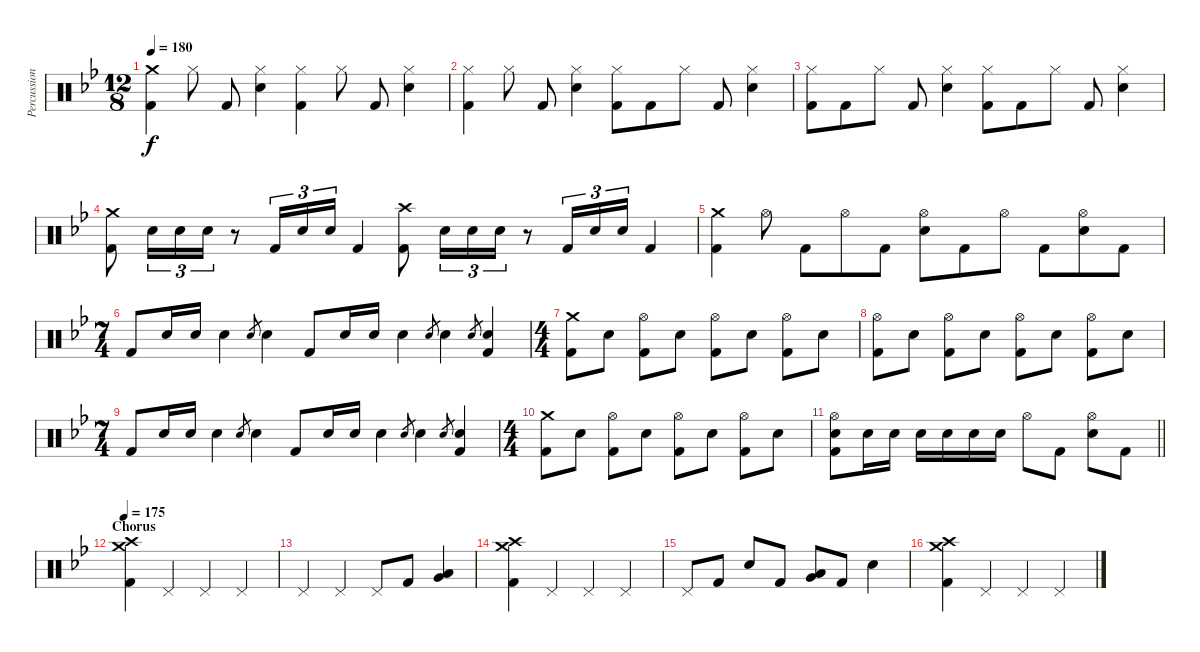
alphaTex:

\track ("Percussion" "Percussion") {instrument percussion}
\staff {score}
\articulation defaults
\ts (12 8)
\tempo 180
\clef neutral
\ks bb
("Crash medium (hit)" "Kick (hit) 2").4{dy f} "Hi-Hat (closed)".8 "Kick (hit) 2".8 ("Hi-Hat (closed)" "Electric Snare (hit)").4 ("Hi-Hat (closed)" "Kick (hit) 2").4 "Hi-Hat (closed)".8 "Kick (hit) 2".8 ("Hi-Hat (closed)" "Electric Snare (hit)").4 |
("Hi-Hat (closed)" "Kick (hit) 2").4 "Hi-Hat (closed)".8 "Kick (hit) 2".8 ("Hi-Hat (closed)" "Electric Snare (hit)").4 ("Hi-Hat (closed)" "Kick (hit) 2").8 "Kick (hit) 2".8 "Hi-Hat (closed)".8 "Kick (hit) 2".8 ("Hi-Hat (closed)" "Electric Snare (hit)").4 |
("Hi-Hat (closed)" "Kick (hit) 2").8 "Kick (hit) 2".8 "Hi-Hat (closed)".8 "Kick (hit) 2".8 ("Hi-Hat (closed)" "Electric Snare (hit)").4 ("Hi-Hat (closed)" "Kick (hit) 2").8 "Kick (hit) 2".8 "Hi-Hat (closed)".8 "Kick (hit) 2".8 ("Hi-Hat (closed)" "Electric Snare (hit)").4 |
("Crash medium (hit)" "Kick (hit) 2").8 "Electric Snare (hit)".16{tu (3 2)} "Electric Snare (hit)".16{tu (3 2)} "Electric Snare (hit)".16{tu (3 2)} r.8 "Kick (hit) 2".16{tu (3 2)} "Electric Snare (hit)".16{tu (3 2)} "Electric Snare (hit)".16{tu (3 2)} "Kick (hit) 2".4 ("Crash high (hit)" "Kick (hit) 2").8 "Electric Snare (hit)".16{tu (3 2)} "Electric Snare (hit)".16{tu (3 2)} "Electric Snare (hit)".16{tu (3 2)} r.8 "Kick (hit) 2".16{tu (3 2)} "Electric Snare (hit)".16{tu (3 2)} "Electric Snare (hit)".16{tu (3 2)} "Kick (hit) 2".4 |
("Crash medium (hit)" "Kick (hit) 2").4 "Hi-Hat (open)".8 "Kick (hit) 2".8 "Hi-Hat (open)".8 "Kick (hit) 2".8 ("Hi-Hat (open)" "Electric Snare (hit)").8 "Kick (hit) 2".8 "Hi-Hat (open)".8 "Kick (hit) 2".8 ("Hi-Hat (open)" "Electric Snare (hit)").8 "Kick (hit) 2".8 |
\ts (7 4)
"Kick (hit) 2".8 "Electric Snare (hit)".16 "Electric Snare (hit)".16 "Electric Snare (hit)".4 "Electric Snare (hit)".8{gr} "Electric Snare (hit)".4 "Kick (hit) 2".8 "Electric Snare (hit)".16 "Electric Snare (hit)".16 "Electric Snare (hit)".4 "Electric Snare (hit)".8{gr} "Electric Snare (hit)".4 "Electric Snare (hit)".8{gr} ("Electric Snare (hit)" "Kick (hit) 2").4 |
\ts (4 4)
("Crash medium (hit)" "Kick (hit) 2").8 "Electric Snare (hit)".8 ("Hi-Hat (open)" "Kick (hit) 2").8 "Electric Snare (hit)".8 ("Hi-Hat (open)" "Kick (hit) 2").8 "Electric Snare (hit)".8 ("Hi-Hat (open)" "Kick (hit) 2").8 "Electric Snare (hit)".8 |
("Hi-Hat (open)" "Kick (hit) 2").8 "Electric Snare (hit)".8 ("Hi-Hat (open)" "Kick (hit) 2").8 "Electric Snare (hit)".8 ("Hi-Hat (open)" "Kick (hit) 2").8 "Electric Snare (hit)".8 ("Hi-Hat (open)" "Kick (hit) 2").8 "Electric Snare (hit)".8 |
\ts (7 4)
"Kick (hit) 2".8 "Electric Snare (hit)".16 "Electric Snare (hit)".16 "Electric Snare (hit)".4 "Electric Snare (hit)".8{gr} "Electric Snare (hit)".4 "Kick (hit) 2".8 "Electric Snare (hit)".16 "Electric Snare (hit)".16 "Electric Snare (hit)".4 "Electric Snare (hit)".8{gr} "Electric Snare (hit)".4 "Electric Snare (hit)".8{gr} ("Electric Snare (hit)" "Kick (hit) 2").4 |
\ts (4 4)
("Crash medium (hit)" "Kick (hit) 2").8 "Electric Snare (hit)".8 ("Hi-Hat (open)" "Kick (hit) 2").8 "Electric Snare (hit)".8 ("Hi-Hat (open)" "Kick (hit) 2").8 "Electric Snare (hit)".8 ("Hi-Hat (open)" "Kick (hit) 2").8 "Electric Snare (hit)".8 |
\barLineRight lightlight
("Hi-Hat (open)" "Electric Snare (hit)" "Kick (hit) 2").8 "Electric Snare (hit)".16 "Electric Snare (hit)".16 "Electric Snare (hit)".16 "Electric Snare (hit)".16 "Electric Snare (hit)".16 "Electric Snare (hit)".16 "Hi-Hat (open)".8 "Kick (hit) 2".8 ("Hi-Hat (open)" "Electric Snare (hit)").8 "Kick (hit) 2".8 |
\section ("" "Chorus")
\tempo 175
("Crash medium (hit)" "Crash high (hit)" "Kick (hit) 2").4 "Pedal Hi-Hat (hit)".4 "Pedal Hi-Hat (hit)".4 "Pedal Hi-Hat (hit)".4 |
"Pedal Hi-Hat (hit)".4 "Pedal Hi-Hat (hit)".4 "Pedal Hi-Hat (hit)".8 "Kick (hit) 2".8 ("Very Low Tom (hit)" "Low Floor Tom (hit)").4 |
("Crash medium (hit)" "Crash high (hit)" "Kick (hit) 2").4 "Pedal Hi-Hat (hit)".4 "Pedal Hi-Hat (hit)".4 "Pedal Hi-Hat (hit)".4 |
"Pedal Hi-Hat (hit)".8 "Kick (hit) 2".8 "Electric Snare (hit)".8 "Kick (hit) 2".8 ("Very Low Tom (hit)" "Low Floor Tom (hit)").8 "Kick (hit) 2".8 "Electric Snare (hit)".4 |
("Crash medium (hit)" "Crash high (hit)" "Kick (hit) 2").4 "Pedal Hi-Hat (hit)".4 "Pedal Hi-Hat (hit)".4 "Pedal Hi-Hat (hit)".4
